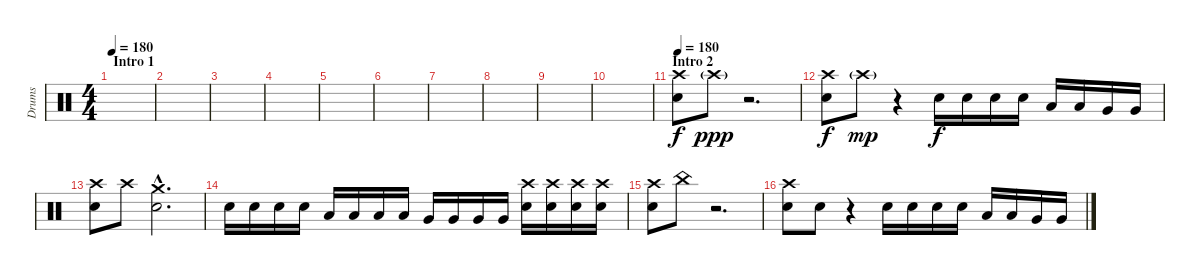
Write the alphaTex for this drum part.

\track ("Drums" "Drums") {instrument percussion}
\staff {score}
\articulation defaults
\ts (4 4)
\section ("" "Intro 1")
\tempo 180
\tempo 80
\tempo 180
\clef neutral
\ks c
|
|
|
|
|
|
|
|
|
|
\section ("" "Intro 2")
\tempo 180
("Crash high (hit)" "Electric Snare (hit)").8 "Crash high (hit)"{g}.8{dy ppp} r.2{d} |
("Crash high (hit)" "Electric Snare (hit)").8{dy f} "Crash high (hit)"{g}.8{dy mp} r.4 "Electric Snare (hit)".16{dy f} "Electric Snare (hit)".16 "Electric Snare (hit)".16 "Electric Snare (hit)".16 "Low Tom (hit)".16 "Low Tom (hit)".16 "Very Low Tom (hit)".16 "Very Low Tom (hit)".16 |
("Crash high (hit)" "Electric Snare (hit)").8 "Crash high (hit)".8 ("Crash medium (hit)"{hac} "Electric Snare (hit)"{hac}).2{d} |
"Electric Snare (hit)".16 "Electric Snare (hit)".16 "Electric Snare (hit)".16 "Electric Snare (hit)".16 "Low Tom (hit)".16 "Low Tom (hit)".16 "Low Tom (hit)".16 "Low Tom (hit)".16 "Very Low Tom (hit)".16 "Very Low Tom (hit)".16 "Very Low Tom (hit)".16 "Very Low Tom (hit)".16 ("Electric Snare (hit)" "Crash high (hit)").16 ("Electric Snare (hit)" "Crash high (hit)").16 ("Electric Snare (hit)" "Crash high (hit)").16 ("Electric Snare (hit)" "Crash high (hit)").16 |
("Crash high (hit)" "Electric Snare (hit)").8 "China (hit)".8 r.2{d} |
("Crash high (hit)" "Electric Snare (hit)").8 "Electric Snare (hit)".8 r.4 "Electric Snare (hit)".16 "Electric Snare (hit)".16 "Electric Snare (hit)".16 "Electric Snare (hit)".16 "Low Tom (hit)".16 "Low Tom (hit)".16 "Very Low Tom (hit)".16 "Very Low Tom (hit)".16
